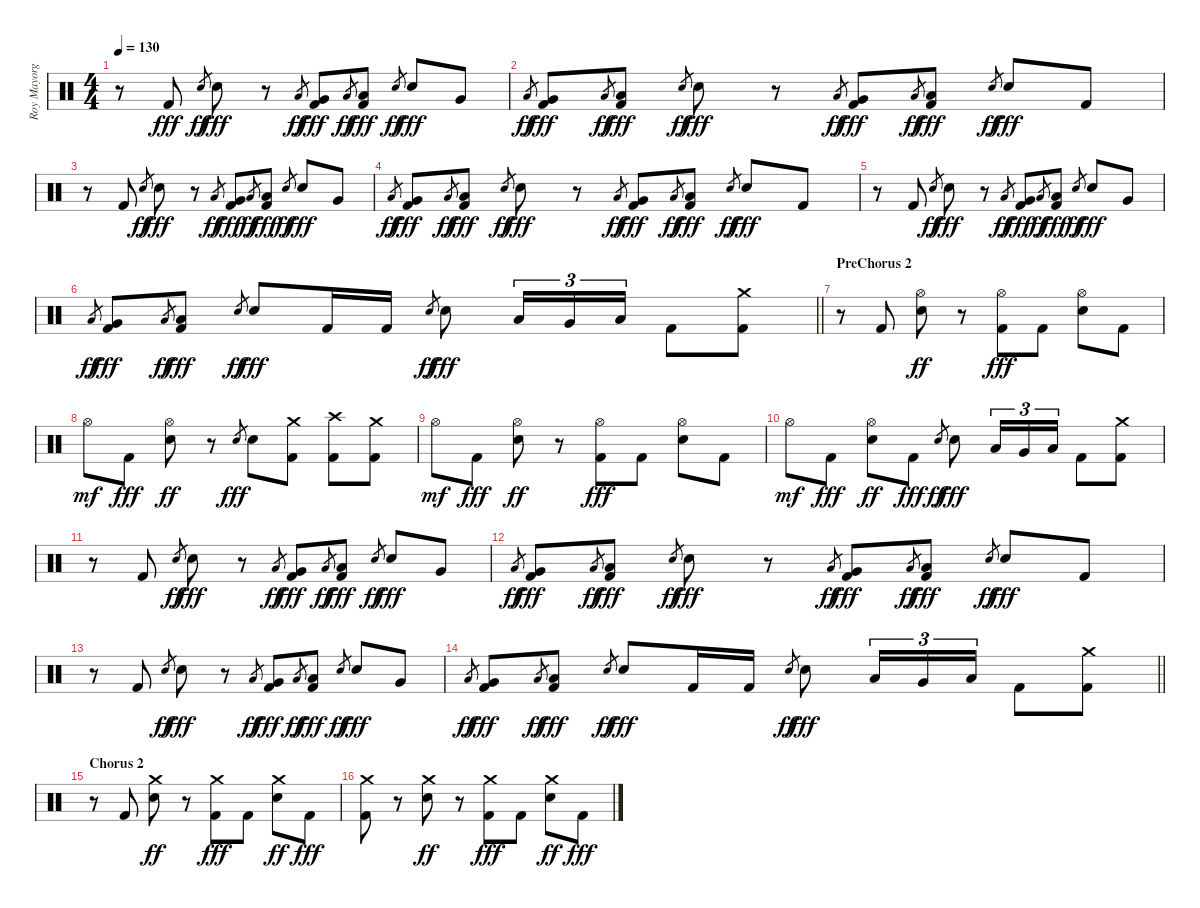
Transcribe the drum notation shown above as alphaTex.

\track ("Roy Mayorga" "Roy Mayorg") {instrument percussion}
\staff {score}
\articulation defaults
\ts (4 4)
\tempo 130
\clef neutral
\ks c
r.8{dy fff} "Kick (hit) 2".8 "Electric Snare (hit)".8{gr dy ff} "Electric Snare (hit)".8{dy fff} r.8 "Low Floor Tom (hit)".8{gr dy ff} ("Very Low Tom (hit)" "Kick (hit) 2").8{dy fff} "Low Floor Tom (hit)".8{gr dy ff} ("Low Floor Tom (hit)" "Kick (hit) 2").8{dy fff} "Electric Snare (hit)".8{gr dy ff} "Electric Snare (hit)".8{dy fff} "Very Low Tom (hit)".8 |
"Low Floor Tom (hit)".8{gr dy ff} ("Very Low Tom (hit)" "Kick (hit) 2").8{dy fff} "Low Floor Tom (hit)".8{gr dy ff} ("Low Floor Tom (hit)" "Kick (hit) 2").8{dy fff} "Electric Snare (hit)".8{gr dy ff} "Electric Snare (hit)".8{dy fff} r.8 "Low Floor Tom (hit)".8{gr dy ff} ("Very Low Tom (hit)" "Kick (hit) 2").8{dy fff} "Low Floor Tom (hit)".8{gr dy ff} ("Low Floor Tom (hit)" "Kick (hit) 2").8{dy fff} "Electric Snare (hit)".8{gr dy ff} "Electric Snare (hit)".8{dy fff} "Kick (hit) 2".8 |
r.8 "Kick (hit) 2".8 "Electric Snare (hit)".8{gr dy ff} "Electric Snare (hit)".8{dy fff} r.8 "Low Floor Tom (hit)".8{gr dy ff} ("Very Low Tom (hit)" "Kick (hit) 2").8{dy fff} "Low Floor Tom (hit)".8{gr dy ff} ("Low Floor Tom (hit)" "Kick (hit) 2").8{dy fff} "Electric Snare (hit)".8{gr dy ff} "Electric Snare (hit)".8{dy fff} "Very Low Tom (hit)".8 |
"Low Floor Tom (hit)".8{gr dy ff} ("Very Low Tom (hit)" "Kick (hit) 2").8{dy fff} "Low Floor Tom (hit)".8{gr dy ff} ("Low Floor Tom (hit)" "Kick (hit) 2").8{dy fff} "Electric Snare (hit)".8{gr dy ff} "Electric Snare (hit)".8{dy fff} r.8 "Low Floor Tom (hit)".8{gr dy ff} ("Very Low Tom (hit)" "Kick (hit) 2").8{dy fff} "Low Floor Tom (hit)".8{gr dy ff} ("Low Floor Tom (hit)" "Kick (hit) 2").8{dy fff} "Electric Snare (hit)".8{gr dy ff} "Electric Snare (hit)".8{dy fff} "Kick (hit) 2".8 |
r.8 "Kick (hit) 2".8 "Electric Snare (hit)".8{gr dy ff} "Electric Snare (hit)".8{dy fff} r.8 "Low Floor Tom (hit)".8{gr dy ff} ("Very Low Tom (hit)" "Kick (hit) 2").8{dy fff} "Low Floor Tom (hit)".8{gr dy ff} ("Low Floor Tom (hit)" "Kick (hit) 2").8{dy fff} "Electric Snare (hit)".8{gr dy ff} "Electric Snare (hit)".8{dy fff} "Very Low Tom (hit)".8 |
\barLineRight lightlight "Low Floor Tom (hit)".8{gr dy ff}
("Very Low Tom (hit)" "Kick (hit) 2").8{dy fff} "Low Floor Tom (hit)".8{gr dy ff} ("Low Floor Tom (hit)" "Kick (hit) 2").8{dy fff} "Electric Snare (hit)".8{gr dy ff} "Electric Snare (hit)".8{dy fff} "Kick (hit) 2".16 "Kick (hit) 2".16 "Electric Snare (hit)".8{gr dy ff} "Electric Snare (hit)".8{dy fff} "Low Tom (hit)".16{tu (3 2)} "Very Low Tom (hit)".16{tu (3 2)} "Low Floor Tom (hit)".16{tu (3 2)} "Kick (hit) 2".8 ("Crash medium (hit)" "Kick (hit) 2").8 |
\section ("" "PreChorus 2")
r.8 "Kick (hit) 2".8 ("Hi-Hat (open)" "Electric Snare (hit)").8{dy ff} r.8 ("Hi-Hat (open)" "Kick (hit) 2").8{dy fff} "Kick (hit) 2".8 ("Hi-Hat (open)" "Electric Snare (hit)").8 "Kick (hit) 2".8 |
"Hi-Hat (open)".8{dy mf} "Kick (hit) 2".8{dy fff} ("Hi-Hat (open)" "Electric Snare (hit)").8{dy ff} r.8 "Electric Snare (hit)".8{gr dy fff} "Electric Snare (hit)".8 ("Crash medium (hit)" "Kick (hit) 2").8 ("Crash high (hit)" "Kick (hit) 2").8 ("Crash medium (hit)" "Kick (hit) 2").8 |
"Hi-Hat (open)".8{dy mf} "Kick (hit) 2".8{dy fff} ("Hi-Hat (open)" "Electric Snare (hit)").8{dy ff} r.8 ("Hi-Hat (open)" "Kick (hit) 2").8{dy fff} "Kick (hit) 2".8 ("Hi-Hat (open)" "Electric Snare (hit)").8 "Kick (hit) 2".8 |
"Hi-Hat (open)".8{dy mf} "Kick (hit) 2".8{dy fff} ("Hi-Hat (open)" "Electric Snare (hit)").8{dy ff} "Kick (hit) 2".8{dy fff} "Electric Snare (hit)".8{gr dy ff} "Electric Snare (hit)".8{dy fff} "Low Tom (hit)".16{tu (3 2)} "Very Low Tom (hit)".16{tu (3 2)} "Low Floor Tom (hit)".16{tu (3 2)} "Kick (hit) 2".8 ("Crash medium (hit)" "Kick (hit) 2").8 |
r.8 "Kick (hit) 2".8 "Electric Snare (hit)".8{gr dy ff} "Electric Snare (hit)".8{dy fff} r.8 "Low Floor Tom (hit)".8{gr dy ff} ("Very Low Tom (hit)" "Kick (hit) 2").8{dy fff} "Low Floor Tom (hit)".8{gr dy ff} ("Low Floor Tom (hit)" "Kick (hit) 2").8{dy fff} "Electric Snare (hit)".8{gr dy ff} "Electric Snare (hit)".8{dy fff} "Very Low Tom (hit)".8 |
"Low Floor Tom (hit)".8{gr dy ff} ("Very Low Tom (hit)" "Kick (hit) 2").8{dy fff} "Low Floor Tom (hit)".8{gr dy ff} ("Low Floor Tom (hit)" "Kick (hit) 2").8{dy fff} "Electric Snare (hit)".8{gr dy ff} "Electric Snare (hit)".8{dy fff} r.8 "Low Floor Tom (hit)".8{gr dy ff} ("Very Low Tom (hit)" "Kick (hit) 2").8{dy fff} "Low Floor Tom (hit)".8{gr dy ff} ("Low Floor Tom (hit)" "Kick (hit) 2").8{dy fff} "Electric Snare (hit)".8{gr dy ff} "Electric Snare (hit)".8{dy fff} "Kick (hit) 2".8 |
r.8 "Kick (hit) 2".8 "Electric Snare (hit)".8{gr dy ff} "Electric Snare (hit)".8{dy fff} r.8 "Low Floor Tom (hit)".8{gr dy ff} ("Very Low Tom (hit)" "Kick (hit) 2").8{dy fff} "Low Floor Tom (hit)".8{gr dy ff} ("Low Floor Tom (hit)" "Kick (hit) 2").8{dy fff} "Electric Snare (hit)".8{gr dy ff} "Electric Snare (hit)".8{dy fff} "Very Low Tom (hit)".8 |
\barLineRight lightlight "Low Floor Tom (hit)".8{gr dy ff}
("Very Low Tom (hit)" "Kick (hit) 2").8{dy fff} "Low Floor Tom (hit)".8{gr dy ff} ("Low Floor Tom (hit)" "Kick (hit) 2").8{dy fff} "Electric Snare (hit)".8{gr dy ff} "Electric Snare (hit)".8{dy fff} "Kick (hit) 2".16 "Kick (hit) 2".16 "Electric Snare (hit)".8{gr dy ff} "Electric Snare (hit)".8{dy fff} "Low Tom (hit)".16{tu (3 2)} "Very Low Tom (hit)".16{tu (3 2)} "Low Floor Tom (hit)".16{tu (3 2)} "Kick (hit) 2".8 ("Crash medium (hit)" "Kick (hit) 2").8 |
\section ("" "Chorus 2")
r.8 "Kick (hit) 2".8 ("Crash medium (hit)" "Electric Snare (hit)").8{dy ff} r.8 ("Crash medium (hit)" "Kick (hit) 2").8{dy fff} "Kick (hit) 2".8 ("Crash medium (hit)" "Electric Snare (hit)").8{dy ff} "Kick (hit) 2".8{dy fff} |
("Crash medium (hit)" "Kick (hit) 2").8 r.8 ("Crash medium (hit)" "Electric Snare (hit)").8{dy ff} r.8 ("Crash medium (hit)" "Kick (hit) 2").8{dy fff} "Kick (hit) 2".8 ("Crash medium (hit)" "Electric Snare (hit)").8{dy ff} "Kick (hit) 2".8{dy fff}
